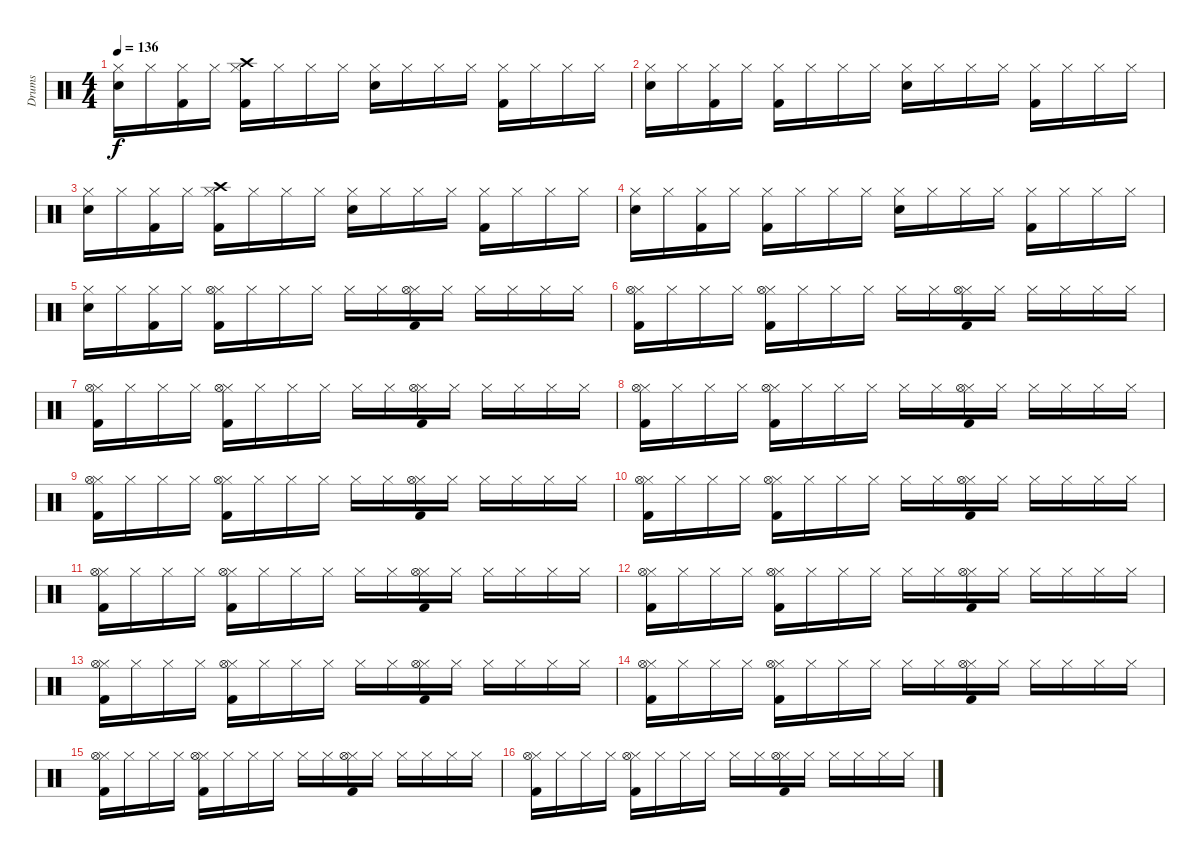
\track ("Drums" "Drums") {instrument percussion}
\staff {score}
\articulation defaults
\ts (4 4)
\tempo 136
\clef neutral
\ks c
("Snare (hit) 2" "Hi-Hat (closed)").16{dy f} "Hi-Hat (closed)".16 ("Kick (hit) 2" "Hi-Hat (closed)").16 "Hi-Hat (closed)".16 ("Kick (hit) 2" "Hi-Hat (closed)" "Crash high (hit)").16 "Hi-Hat (closed)".16 "Hi-Hat (closed)".16 "Hi-Hat (closed)".16 ("Snare (hit) 2" "Hi-Hat (closed)").16 "Hi-Hat (closed)".16 "Hi-Hat (closed)".16 "Hi-Hat (closed)".16 ("Kick (hit) 2" "Hi-Hat (closed)").16 "Hi-Hat (closed)".16 "Hi-Hat (closed)".16 "Hi-Hat (closed)".16 |
("Snare (hit) 2" "Hi-Hat (closed)").16 "Hi-Hat (closed)".16 ("Kick (hit) 2" "Hi-Hat (closed)").16 "Hi-Hat (closed)".16 ("Kick (hit) 2" "Hi-Hat (closed)").16 "Hi-Hat (closed)".16 "Hi-Hat (closed)".16 "Hi-Hat (closed)".16 ("Snare (hit) 2" "Hi-Hat (closed)").16 "Hi-Hat (closed)".16 "Hi-Hat (closed)".16 "Hi-Hat (closed)".16 ("Kick (hit) 2" "Hi-Hat (closed)").16 "Hi-Hat (closed)".16 "Hi-Hat (closed)".16 "Hi-Hat (closed)".16 |
("Snare (hit) 2" "Hi-Hat (closed)").16 "Hi-Hat (closed)".16 ("Kick (hit) 2" "Hi-Hat (closed)").16 "Hi-Hat (closed)".16 ("Kick (hit) 2" "Hi-Hat (closed)" "Crash high (hit)").16 "Hi-Hat (closed)".16 "Hi-Hat (closed)".16 "Hi-Hat (closed)".16 ("Snare (hit) 2" "Hi-Hat (closed)").16 "Hi-Hat (closed)".16 "Hi-Hat (closed)".16 "Hi-Hat (closed)".16 ("Kick (hit) 2" "Hi-Hat (closed)").16 "Hi-Hat (closed)".16 "Hi-Hat (closed)".16 "Hi-Hat (closed)".16 |
("Snare (hit) 2" "Hi-Hat (closed)").16 "Hi-Hat (closed)".16 ("Kick (hit) 2" "Hi-Hat (closed)").16 "Hi-Hat (closed)".16 ("Kick (hit) 2" "Hi-Hat (closed)").16 "Hi-Hat (closed)".16 "Hi-Hat (closed)".16 "Hi-Hat (closed)".16 ("Snare (hit) 2" "Hi-Hat (closed)").16 "Hi-Hat (closed)".16 "Hi-Hat (closed)".16 "Hi-Hat (closed)".16 ("Kick (hit) 2" "Hi-Hat (closed)").16 "Hi-Hat (closed)".16 "Hi-Hat (closed)".16 "Hi-Hat (closed)".16 |
("Snare (hit) 2" "Hi-Hat (closed)").16 "Hi-Hat (closed)".16 ("Kick (hit) 2" "Hi-Hat (closed)").16 "Hi-Hat (closed)".16 ("Kick (hit) 2" "Hi-Hat (closed)" "Hi-Hat (open)").16 "Hi-Hat (closed)".16 "Hi-Hat (closed)".16 "Hi-Hat (closed)".16 "Hi-Hat (closed)".16 "Hi-Hat (closed)".16 ("Kick (hit) 2" "Hi-Hat (closed)" "Hi-Hat (open)").16 "Hi-Hat (closed)".16 "Hi-Hat (closed)".16 "Hi-Hat (closed)".16 "Hi-Hat (closed)".16 "Hi-Hat (closed)".16 |
("Kick (hit) 2" "Hi-Hat (closed)" "Hi-Hat (open)").16 "Hi-Hat (closed)".16 "Hi-Hat (closed)".16 "Hi-Hat (closed)".16 ("Kick (hit) 2" "Hi-Hat (closed)" "Hi-Hat (open)").16 "Hi-Hat (closed)".16 "Hi-Hat (closed)".16 "Hi-Hat (closed)".16 "Hi-Hat (closed)".16 "Hi-Hat (closed)".16 ("Kick (hit) 2" "Hi-Hat (closed)" "Hi-Hat (open)").16 "Hi-Hat (closed)".16 "Hi-Hat (closed)".16 "Hi-Hat (closed)".16 "Hi-Hat (closed)".16 "Hi-Hat (closed)".16 |
("Kick (hit) 2" "Hi-Hat (closed)" "Hi-Hat (open)").16 "Hi-Hat (closed)".16 "Hi-Hat (closed)".16 "Hi-Hat (closed)".16 ("Kick (hit) 2" "Hi-Hat (closed)" "Hi-Hat (open)").16 "Hi-Hat (closed)".16 "Hi-Hat (closed)".16 "Hi-Hat (closed)".16 "Hi-Hat (closed)".16 "Hi-Hat (closed)".16 ("Kick (hit) 2" "Hi-Hat (closed)" "Hi-Hat (open)").16 "Hi-Hat (closed)".16 "Hi-Hat (closed)".16 "Hi-Hat (closed)".16 "Hi-Hat (closed)".16 "Hi-Hat (closed)".16 |
("Kick (hit) 2" "Hi-Hat (closed)" "Hi-Hat (open)").16 "Hi-Hat (closed)".16 "Hi-Hat (closed)".16 "Hi-Hat (closed)".16 ("Kick (hit) 2" "Hi-Hat (closed)" "Hi-Hat (open)").16 "Hi-Hat (closed)".16 "Hi-Hat (closed)".16 "Hi-Hat (closed)".16 "Hi-Hat (closed)".16 "Hi-Hat (closed)".16 ("Kick (hit) 2" "Hi-Hat (closed)" "Hi-Hat (open)").16 "Hi-Hat (closed)".16 "Hi-Hat (closed)".16 "Hi-Hat (closed)".16 "Hi-Hat (closed)".16 "Hi-Hat (closed)".16 |
("Kick (hit) 2" "Hi-Hat (closed)" "Hi-Hat (open)").16 "Hi-Hat (closed)".16 "Hi-Hat (closed)".16 "Hi-Hat (closed)".16 ("Kick (hit) 2" "Hi-Hat (closed)" "Hi-Hat (open)").16 "Hi-Hat (closed)".16 "Hi-Hat (closed)".16 "Hi-Hat (closed)".16 "Hi-Hat (closed)".16 "Hi-Hat (closed)".16 ("Kick (hit) 2" "Hi-Hat (closed)" "Hi-Hat (open)").16 "Hi-Hat (closed)".16 "Hi-Hat (closed)".16 "Hi-Hat (closed)".16 "Hi-Hat (closed)".16 "Hi-Hat (closed)".16 |
("Kick (hit) 2" "Hi-Hat (closed)" "Hi-Hat (open)").16 "Hi-Hat (closed)".16 "Hi-Hat (closed)".16 "Hi-Hat (closed)".16 ("Kick (hit) 2" "Hi-Hat (closed)" "Hi-Hat (open)").16 "Hi-Hat (closed)".16 "Hi-Hat (closed)".16 "Hi-Hat (closed)".16 "Hi-Hat (closed)".16 "Hi-Hat (closed)".16 ("Kick (hit) 2" "Hi-Hat (closed)" "Hi-Hat (open)").16 "Hi-Hat (closed)".16 "Hi-Hat (closed)".16 "Hi-Hat (closed)".16 "Hi-Hat (closed)".16 "Hi-Hat (closed)".16 |
("Kick (hit) 2" "Hi-Hat (closed)" "Hi-Hat (open)").16 "Hi-Hat (closed)".16 "Hi-Hat (closed)".16 "Hi-Hat (closed)".16 ("Kick (hit) 2" "Hi-Hat (closed)" "Hi-Hat (open)").16 "Hi-Hat (closed)".16 "Hi-Hat (closed)".16 "Hi-Hat (closed)".16 "Hi-Hat (closed)".16 "Hi-Hat (closed)".16 ("Kick (hit) 2" "Hi-Hat (closed)" "Hi-Hat (open)").16 "Hi-Hat (closed)".16 "Hi-Hat (closed)".16 "Hi-Hat (closed)".16 "Hi-Hat (closed)".16 "Hi-Hat (closed)".16 |
("Kick (hit) 2" "Hi-Hat (closed)" "Hi-Hat (open)").16 "Hi-Hat (closed)".16 "Hi-Hat (closed)".16 "Hi-Hat (closed)".16 ("Kick (hit) 2" "Hi-Hat (closed)" "Hi-Hat (open)").16 "Hi-Hat (closed)".16 "Hi-Hat (closed)".16 "Hi-Hat (closed)".16 "Hi-Hat (closed)".16 "Hi-Hat (closed)".16 ("Kick (hit) 2" "Hi-Hat (closed)" "Hi-Hat (open)").16 "Hi-Hat (closed)".16 "Hi-Hat (closed)".16 "Hi-Hat (closed)".16 "Hi-Hat (closed)".16 "Hi-Hat (closed)".16 |
("Kick (hit) 2" "Hi-Hat (closed)" "Hi-Hat (open)").16 "Hi-Hat (closed)".16 "Hi-Hat (closed)".16 "Hi-Hat (closed)".16 ("Kick (hit) 2" "Hi-Hat (closed)" "Hi-Hat (open)").16 "Hi-Hat (closed)".16 "Hi-Hat (closed)".16 "Hi-Hat (closed)".16 "Hi-Hat (closed)".16 "Hi-Hat (closed)".16 ("Kick (hit) 2" "Hi-Hat (closed)" "Hi-Hat (open)").16 "Hi-Hat (closed)".16 "Hi-Hat (closed)".16 "Hi-Hat (closed)".16 "Hi-Hat (closed)".16 "Hi-Hat (closed)".16 |
("Kick (hit) 2" "Hi-Hat (closed)" "Hi-Hat (open)").16 "Hi-Hat (closed)".16 "Hi-Hat (closed)".16 "Hi-Hat (closed)".16 ("Kick (hit) 2" "Hi-Hat (closed)" "Hi-Hat (open)").16 "Hi-Hat (closed)".16 "Hi-Hat (closed)".16 "Hi-Hat (closed)".16 "Hi-Hat (closed)".16 "Hi-Hat (closed)".16 ("Kick (hit) 2" "Hi-Hat (closed)" "Hi-Hat (open)").16 "Hi-Hat (closed)".16 "Hi-Hat (closed)".16 "Hi-Hat (closed)".16 "Hi-Hat (closed)".16 "Hi-Hat (closed)".16 |
("Kick (hit) 2" "Hi-Hat (closed)" "Hi-Hat (open)").16 "Hi-Hat (closed)".16 "Hi-Hat (closed)".16 "Hi-Hat (closed)".16 ("Kick (hit) 2" "Hi-Hat (closed)" "Hi-Hat (open)").16 "Hi-Hat (closed)".16 "Hi-Hat (closed)".16 "Hi-Hat (closed)".16 "Hi-Hat (closed)".16 "Hi-Hat (closed)".16 ("Kick (hit) 2" "Hi-Hat (closed)" "Hi-Hat (open)").16 "Hi-Hat (closed)".16 "Hi-Hat (closed)".16 "Hi-Hat (closed)".16 "Hi-Hat (closed)".16 "Hi-Hat (closed)".16 |
("Kick (hit) 2" "Hi-Hat (closed)" "Hi-Hat (open)").16 "Hi-Hat (closed)".16 "Hi-Hat (closed)".16 "Hi-Hat (closed)".16 ("Kick (hit) 2" "Hi-Hat (closed)" "Hi-Hat (open)").16 "Hi-Hat (closed)".16 "Hi-Hat (closed)".16 "Hi-Hat (closed)".16 "Hi-Hat (closed)".16 "Hi-Hat (closed)".16 ("Kick (hit) 2" "Hi-Hat (closed)" "Hi-Hat (open)").16 "Hi-Hat (closed)".16 "Hi-Hat (closed)".16 "Hi-Hat (closed)".16 "Hi-Hat (closed)".16 "Hi-Hat (closed)".16
